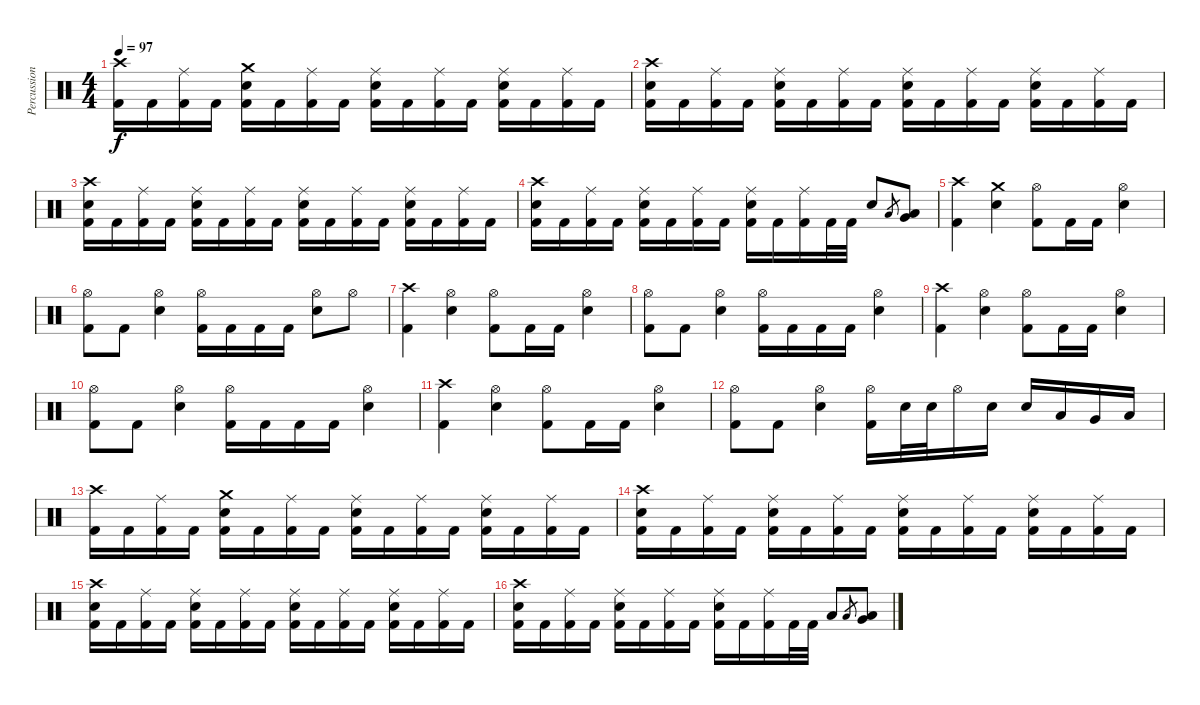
\track ("Percussion" "Percussion") {instrument percussion}
\staff {score}
\articulation defaults
\ts (4 4)
\tempo 97
\clef neutral
\ks c
("Crash high (hit)" "Kick (hit) 2").16{dy f} "Kick (hit) 2".16 ("Ride (middle)" "Kick (hit) 2").16 "Kick (hit) 2".16 ("Snare (hit) 2" "Crash medium (hit)" "Kick (hit) 2").16 "Kick (hit) 2".16 ("Ride (middle)" "Kick (hit) 2").16 "Kick (hit) 2".16 ("Snare (hit) 2" "Ride (middle)" "Kick (hit) 2").16 "Kick (hit) 2".16 ("Ride (middle)" "Kick (hit) 2").16 "Kick (hit) 2".16 ("Ride (middle)" "Snare (hit) 2" "Kick (hit) 2").16 "Kick (hit) 2".16 ("Ride (middle)" "Kick (hit) 2").16 "Kick (hit) 2".16 |
("Snare (hit) 2" "Crash high (hit)" "Kick (hit) 2").16 "Kick (hit) 2".16 ("Ride (middle)" "Kick (hit) 2").16 "Kick (hit) 2".16 ("Snare (hit) 2" "Ride (middle)" "Kick (hit) 2").16 "Kick (hit) 2".16 ("Ride (middle)" "Kick (hit) 2").16 "Kick (hit) 2".16 ("Snare (hit) 2" "Ride (middle)" "Kick (hit) 2").16 "Kick (hit) 2".16 ("Ride (middle)" "Kick (hit) 2").16 "Kick (hit) 2".16 ("Ride (middle)" "Snare (hit) 2" "Kick (hit) 2").16 "Kick (hit) 2".16 ("Ride (middle)" "Kick (hit) 2").16 "Kick (hit) 2".16 |
("Snare (hit) 2" "Crash high (hit)" "Kick (hit) 2").16 "Kick (hit) 2".16 ("Ride (middle)" "Kick (hit) 2").16 "Kick (hit) 2".16 ("Snare (hit) 2" "Ride (middle)" "Kick (hit) 2").16 "Kick (hit) 2".16 ("Ride (middle)" "Kick (hit) 2").16 "Kick (hit) 2".16 ("Snare (hit) 2" "Ride (middle)" "Kick (hit) 2").16 "Kick (hit) 2".16 ("Ride (middle)" "Kick (hit) 2").16 "Kick (hit) 2".16 ("Ride (middle)" "Snare (hit) 2" "Kick (hit) 2").16 "Kick (hit) 2".16 ("Ride (middle)" "Kick (hit) 2").16 "Kick (hit) 2".16 |
("Snare (hit) 2" "Crash high (hit)" "Kick (hit) 2").16 "Kick (hit) 2".16 ("Ride (middle)" "Kick (hit) 2").16 "Kick (hit) 2".16 ("Snare (hit) 2" "Ride (middle)" "Kick (hit) 2").16 "Kick (hit) 2".16 ("Ride (middle)" "Kick (hit) 2").16 "Kick (hit) 2".16 ("Snare (hit) 2" "Ride (middle)" "Kick (hit) 2").16 "Kick (hit) 2".16 ("Ride (middle)" "Kick (hit) 2").16 "Kick (hit) 2".32 "Kick (hit) 2".32 "Snare (hit) 2".8 "Low Floor Tom (hit)".8{gr} ("Low Floor Tom (hit)" "Very Low Tom (hit)").8 |
("Crash high (hit)" "Kick (hit) 2").4 ("Crash medium (hit)" "Snare (hit) 2").4 ("Hi-Hat (open)" "Kick (hit) 2").8 "Kick (hit) 2".16 "Kick (hit) 2".16 ("Hi-Hat (open)" "Snare (hit) 2").4 |
("Hi-Hat (open)" "Kick (hit) 2").8 "Kick (hit) 2".8 ("Hi-Hat (open)" "Snare (hit) 2").4 ("Hi-Hat (open)" "Kick (hit) 2").16 "Kick (hit) 2".16 "Kick (hit) 2".16 "Kick (hit) 2".16 ("Hi-Hat (open)" "Snare (hit) 2").8 "Hi-Hat (open)".8 |
("Crash high (hit)" "Kick (hit) 2").4 ("Hi-Hat (open)" "Snare (hit) 2").4 ("Hi-Hat (open)" "Kick (hit) 2").8 "Kick (hit) 2".16 "Kick (hit) 2".16 ("Hi-Hat (open)" "Snare (hit) 2").4 |
("Hi-Hat (open)" "Kick (hit) 2").8 "Kick (hit) 2".8 ("Hi-Hat (open)" "Snare (hit) 2").4 ("Hi-Hat (open)" "Kick (hit) 2").16 "Kick (hit) 2".16 "Kick (hit) 2".16 "Kick (hit) 2".16 ("Hi-Hat (open)" "Snare (hit) 2").4 |
("Crash high (hit)" "Kick (hit) 2").4 ("Hi-Hat (open)" "Snare (hit) 2").4 ("Hi-Hat (open)" "Kick (hit) 2").8 "Kick (hit) 2".16 "Kick (hit) 2".16 ("Hi-Hat (open)" "Snare (hit) 2").4 |
("Hi-Hat (open)" "Kick (hit) 2").8 "Kick (hit) 2".8 ("Hi-Hat (open)" "Snare (hit) 2").4 ("Hi-Hat (open)" "Kick (hit) 2").16 "Kick (hit) 2".16 "Kick (hit) 2".16 "Kick (hit) 2".16 ("Hi-Hat (open)" "Snare (hit) 2").4 |
("Crash high (hit)" "Kick (hit) 2").4 ("Hi-Hat (open)" "Snare (hit) 2").4 ("Hi-Hat (open)" "Kick (hit) 2").8 "Kick (hit) 2".16 "Kick (hit) 2".16 ("Hi-Hat (open)" "Snare (hit) 2").4 |
("Hi-Hat (open)" "Kick (hit) 2").8 "Kick (hit) 2".8 ("Hi-Hat (open)" "Snare (hit) 2").4 ("Hi-Hat (open)" "Kick (hit) 2").16 "Snare (hit) 2".32 "Snare (hit) 2".32 "Hi-Hat (open)".16 "Snare (hit) 2".16 "Snare (hit) 2".16 "Low Tom (hit)".16 "Very Low Tom (hit)".16 "Low Floor Tom (hit)".16 |
("Crash high (hit)" "Kick (hit) 2").16 "Kick (hit) 2".16 ("Ride (middle)" "Kick (hit) 2").16 "Kick (hit) 2".16 ("Snare (hit) 2" "Crash medium (hit)" "Kick (hit) 2").16 "Kick (hit) 2".16 ("Ride (middle)" "Kick (hit) 2").16 "Kick (hit) 2".16 ("Snare (hit) 2" "Ride (middle)" "Kick (hit) 2").16 "Kick (hit) 2".16 ("Ride (middle)" "Kick (hit) 2").16 "Kick (hit) 2".16 ("Ride (middle)" "Snare (hit) 2" "Kick (hit) 2").16 "Kick (hit) 2".16 ("Ride (middle)" "Kick (hit) 2").16 "Kick (hit) 2".16 |
("Snare (hit) 2" "Crash high (hit)" "Kick (hit) 2").16 "Kick (hit) 2".16 ("Ride (middle)" "Kick (hit) 2").16 "Kick (hit) 2".16 ("Snare (hit) 2" "Ride (middle)" "Kick (hit) 2").16 "Kick (hit) 2".16 ("Ride (middle)" "Kick (hit) 2").16 "Kick (hit) 2".16 ("Snare (hit) 2" "Ride (middle)" "Kick (hit) 2").16 "Kick (hit) 2".16 ("Ride (middle)" "Kick (hit) 2").16 "Kick (hit) 2".16 ("Ride (middle)" "Snare (hit) 2" "Kick (hit) 2").16 "Kick (hit) 2".16 ("Ride (middle)" "Kick (hit) 2").16 "Kick (hit) 2".16 |
("Snare (hit) 2" "Crash high (hit)" "Kick (hit) 2").16 "Kick (hit) 2".16 ("Ride (middle)" "Kick (hit) 2").16 "Kick (hit) 2".16 ("Snare (hit) 2" "Ride (middle)" "Kick (hit) 2").16 "Kick (hit) 2".16 ("Ride (middle)" "Kick (hit) 2").16 "Kick (hit) 2".16 ("Snare (hit) 2" "Ride (middle)" "Kick (hit) 2").16 "Kick (hit) 2".16 ("Ride (middle)" "Kick (hit) 2").16 "Kick (hit) 2".16 ("Ride (middle)" "Snare (hit) 2" "Kick (hit) 2").16 "Kick (hit) 2".16 ("Ride (middle)" "Kick (hit) 2").16 "Kick (hit) 2".16 |
("Snare (hit) 2" "Crash high (hit)" "Kick (hit) 2").16 "Kick (hit) 2".16 ("Ride (middle)" "Kick (hit) 2").16 "Kick (hit) 2".16 ("Snare (hit) 2" "Ride (middle)" "Kick (hit) 2").16 "Kick (hit) 2".16 ("Ride (middle)" "Kick (hit) 2").16 "Kick (hit) 2".16 ("Snare (hit) 2" "Ride (middle)" "Kick (hit) 2").16 "Kick (hit) 2".16 ("Ride (middle)" "Kick (hit) 2").16 "Kick (hit) 2".32 "Kick (hit) 2".32 "Low Tom (hit)".8 "Low Floor Tom (hit)".8{gr} ("Low Floor Tom (hit)" "Very Low Tom (hit)").8
